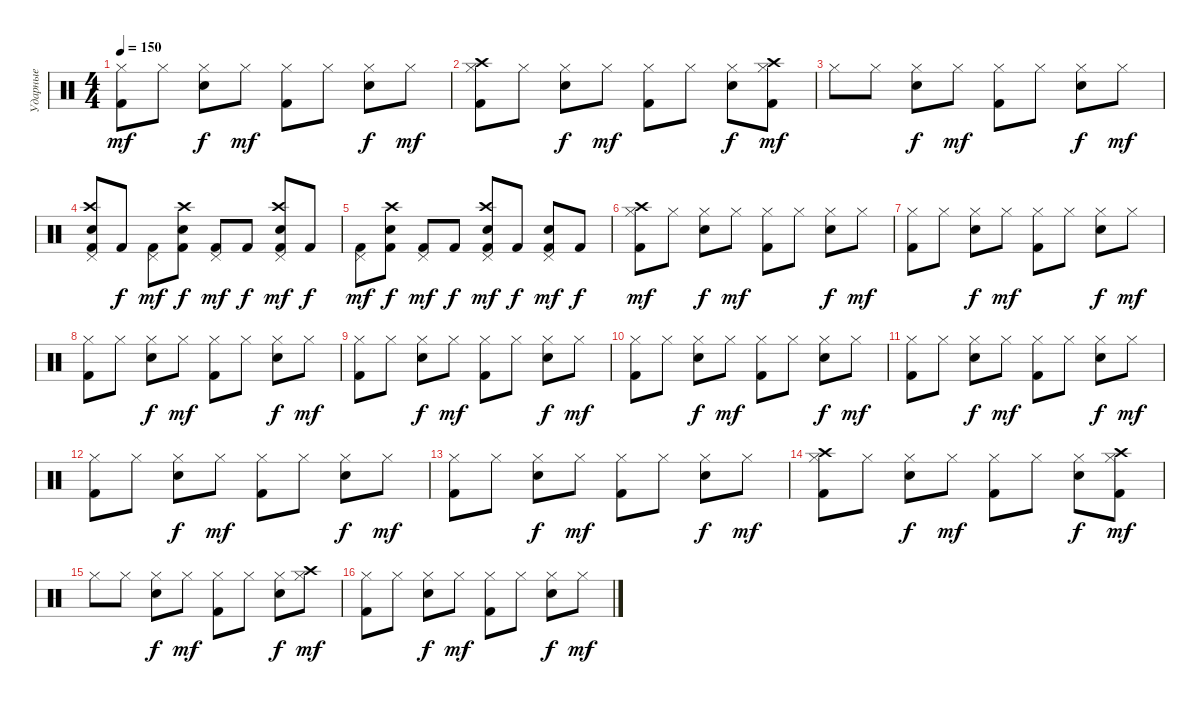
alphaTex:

\track ("Ударные" "Ударные") {instrument percussion}
\staff {score}
\articulation defaults
\ts (4 4)
\tempo 150
\clef neutral
\ks c
("Kick (hit) 2" "Hi-Hat (closed)").8{dy mf} "Hi-Hat (closed)".8 ("Snare (hit) 2" "Hi-Hat (closed)").8{dy f} "Hi-Hat (closed)".8{dy mf} ("Kick (hit) 2" "Hi-Hat (closed)").8 "Hi-Hat (closed)".8 ("Snare (hit) 2" "Hi-Hat (closed)").8{dy f} "Hi-Hat (closed)".8{dy mf} |
("Kick (hit) 2" "Crash high (hit)" "Hi-Hat (closed)").8 "Hi-Hat (closed)".8 ("Snare (hit) 2" "Hi-Hat (closed)").8{dy f} "Hi-Hat (closed)".8{dy mf} ("Kick (hit) 2" "Hi-Hat (closed)").8 "Hi-Hat (closed)".8 ("Snare (hit) 2" "Hi-Hat (closed)").8{dy f} ("Kick (hit) 2" "Crash high (hit)" "Hi-Hat (closed)").8{dy mf} |
"Hi-Hat (closed)".8 "Hi-Hat (closed)".8 ("Snare (hit) 2" "Hi-Hat (closed)").8{dy f} "Hi-Hat (closed)".8{dy mf} ("Kick (hit) 2" "Hi-Hat (closed)").8 "Hi-Hat (closed)".8 ("Snare (hit) 2" "Hi-Hat (closed)").8{dy f} "Hi-Hat (closed)".8{dy mf} |
("Kick (hit) 2" "Snare (hit) 2" "Crash high (hit)" "Pedal Hi-Hat (hit)").8 "Kick (hit) 2".8{dy f} ("Kick (hit) 2" "Pedal Hi-Hat (hit)").8{dy mf} ("Kick (hit) 2" "Snare (hit) 2" "Crash high (hit)").8{dy f} ("Kick (hit) 2" "Pedal Hi-Hat (hit)").8{dy mf} "Kick (hit) 2".8{dy f} ("Kick (hit) 2" "Snare (hit) 2" "Crash high (hit)" "Pedal Hi-Hat (hit)").8{dy mf} "Kick (hit) 2".8{dy f} |
("Kick (hit) 2" "Pedal Hi-Hat (hit)").8{dy mf} ("Kick (hit) 2" "Snare (hit) 2" "Crash high (hit)").8{dy f} ("Kick (hit) 2" "Pedal Hi-Hat (hit)").8{dy mf} "Kick (hit) 2".8{dy f} ("Kick (hit) 2" "Snare (hit) 2" "Crash high (hit)" "Pedal Hi-Hat (hit)").8{dy mf} "Kick (hit) 2".8{dy f} ("Kick (hit) 2" "Snare (hit) 2" "Pedal Hi-Hat (hit)").8{dy mf} "Kick (hit) 2".8{dy f} |
("Kick (hit) 2" "Crash high (hit)" "Hi-Hat (closed)").8{dy mf} "Hi-Hat (closed)".8 ("Snare (hit) 2" "Hi-Hat (closed)").8{dy f} "Hi-Hat (closed)".8{dy mf} ("Kick (hit) 2" "Hi-Hat (closed)").8 "Hi-Hat (closed)".8 ("Snare (hit) 2" "Hi-Hat (closed)").8{dy f} "Hi-Hat (closed)".8{dy mf} |
("Kick (hit) 2" "Hi-Hat (closed)").8 "Hi-Hat (closed)".8 ("Snare (hit) 2" "Hi-Hat (closed)").8{dy f} "Hi-Hat (closed)".8{dy mf} ("Kick (hit) 2" "Hi-Hat (closed)").8 "Hi-Hat (closed)".8 ("Snare (hit) 2" "Hi-Hat (closed)").8{dy f} "Hi-Hat (closed)".8{dy mf} |
("Kick (hit) 2" "Hi-Hat (closed)").8 "Hi-Hat (closed)".8 ("Snare (hit) 2" "Hi-Hat (closed)").8{dy f} "Hi-Hat (closed)".8{dy mf} ("Kick (hit) 2" "Hi-Hat (closed)").8 "Hi-Hat (closed)".8 ("Snare (hit) 2" "Hi-Hat (closed)").8{dy f} "Hi-Hat (closed)".8{dy mf} |
("Kick (hit) 2" "Hi-Hat (closed)").8 "Hi-Hat (closed)".8 ("Snare (hit) 2" "Hi-Hat (closed)").8{dy f} "Hi-Hat (closed)".8{dy mf} ("Kick (hit) 2" "Hi-Hat (closed)").8 "Hi-Hat (closed)".8 ("Snare (hit) 2" "Hi-Hat (closed)").8{dy f} "Hi-Hat (closed)".8{dy mf} |
("Kick (hit) 2" "Hi-Hat (closed)").8 "Hi-Hat (closed)".8 ("Snare (hit) 2" "Hi-Hat (closed)").8{dy f} "Hi-Hat (closed)".8{dy mf} ("Kick (hit) 2" "Hi-Hat (closed)").8 "Hi-Hat (closed)".8 ("Snare (hit) 2" "Hi-Hat (closed)").8{dy f} "Hi-Hat (closed)".8{dy mf} |
("Kick (hit) 2" "Hi-Hat (closed)").8 "Hi-Hat (closed)".8 ("Snare (hit) 2" "Hi-Hat (closed)").8{dy f} "Hi-Hat (closed)".8{dy mf} ("Kick (hit) 2" "Hi-Hat (closed)").8 "Hi-Hat (closed)".8 ("Snare (hit) 2" "Hi-Hat (closed)").8{dy f} "Hi-Hat (closed)".8{dy mf} |
("Kick (hit) 2" "Hi-Hat (closed)").8 "Hi-Hat (closed)".8 ("Snare (hit) 2" "Hi-Hat (closed)").8{dy f} "Hi-Hat (closed)".8{dy mf} ("Kick (hit) 2" "Hi-Hat (closed)").8 "Hi-Hat (closed)".8 ("Snare (hit) 2" "Hi-Hat (closed)").8{dy f} "Hi-Hat (closed)".8{dy mf} |
("Kick (hit) 2" "Hi-Hat (closed)").8 "Hi-Hat (closed)".8 ("Snare (hit) 2" "Hi-Hat (closed)").8{dy f} "Hi-Hat (closed)".8{dy mf} ("Kick (hit) 2" "Hi-Hat (closed)").8 "Hi-Hat (closed)".8 ("Snare (hit) 2" "Hi-Hat (closed)").8{dy f} "Hi-Hat (closed)".8{dy mf} |
("Kick (hit) 2" "Crash high (hit)" "Hi-Hat (closed)").8 "Hi-Hat (closed)".8 ("Snare (hit) 2" "Hi-Hat (closed)").8{dy f} "Hi-Hat (closed)".8{dy mf} ("Kick (hit) 2" "Hi-Hat (closed)").8 "Hi-Hat (closed)".8 ("Snare (hit) 2" "Hi-Hat (closed)").8{dy f} ("Kick (hit) 2" "Crash high (hit)" "Hi-Hat (closed)").8{dy mf} |
"Hi-Hat (closed)".8 "Hi-Hat (closed)".8 ("Snare (hit) 2" "Hi-Hat (closed)").8{dy f} "Hi-Hat (closed)".8{dy mf} ("Kick (hit) 2" "Hi-Hat (closed)").8 "Hi-Hat (closed)".8 ("Snare (hit) 2" "Hi-Hat (closed)").8{dy f} ("Crash high (hit)" "Hi-Hat (closed)").8{dy mf} |
("Kick (hit) 2" "Hi-Hat (closed)").8 "Hi-Hat (closed)".8 ("Snare (hit) 2" "Hi-Hat (closed)").8{dy f} "Hi-Hat (closed)".8{dy mf} ("Kick (hit) 2" "Hi-Hat (closed)").8 "Hi-Hat (closed)".8 ("Snare (hit) 2" "Hi-Hat (closed)").8{dy f} "Hi-Hat (closed)".8{dy mf}
